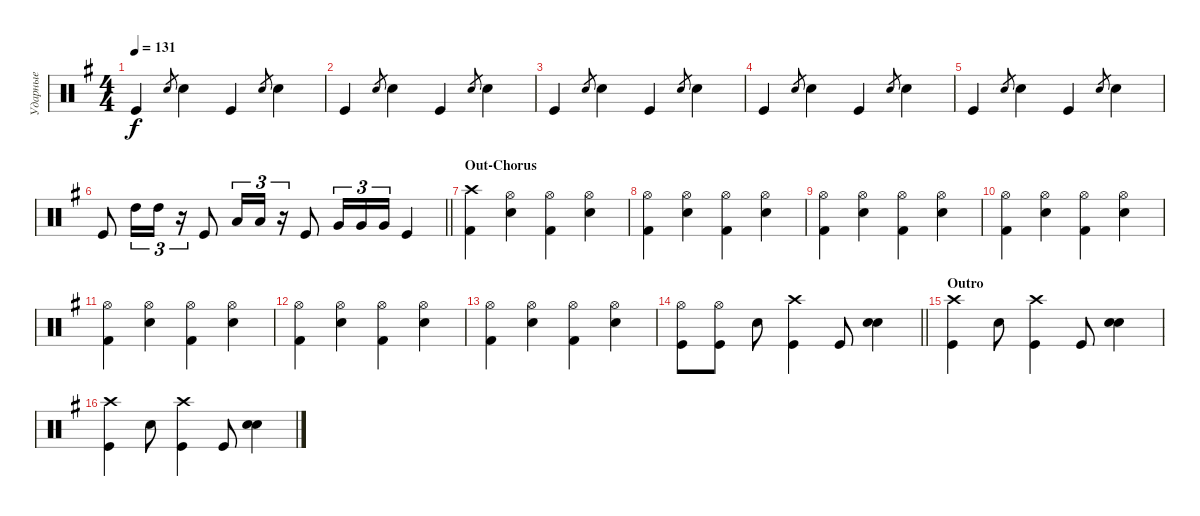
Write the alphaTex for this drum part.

\track ("Ударные" "Ударные") {instrument percussion}
\staff {score}
\articulation defaults
\ts (4 4)
\tempo 131
\clef neutral
\ks eminor "Kick (hit)".4{dy f} "Snare (hit) 2".8{gr} "Snare (hit) 2".4 "Kick (hit)".4 "Snare (hit) 2".8{gr} "Snare (hit) 2".4
|
"Kick (hit)".4 "Snare (hit) 2".8{gr} "Snare (hit) 2".4 "Kick (hit)".4 "Snare (hit) 2".8{gr} "Snare (hit) 2".4 |
"Kick (hit)".4 "Snare (hit) 2".8{gr} "Snare (hit) 2".4 "Kick (hit)".4 "Snare (hit) 2".8{gr} "Snare (hit) 2".4 |
"Kick (hit)".4 "Snare (hit) 2".8{gr} "Snare (hit) 2".4 "Kick (hit)".4 "Snare (hit) 2".8{gr} "Snare (hit) 2".4 |
"Kick (hit)".4 "Snare (hit) 2".8{gr} "Snare (hit) 2".4 "Kick (hit)".4 "Snare (hit) 2".8{gr} "Snare (hit) 2".4 |
\barLineRight lightlight "Kick (hit)".8 "High Tom (hit)".16{tu (3 2)} "High Tom (hit)".16{tu (3 2)}
r.16{tu (3 2)} "Kick (hit)".8 "Low Tom (hit)".16{tu (3 2)} "Low Tom (hit)".16{tu (3 2)} r.16{tu (3 2)} "Kick (hit)".8 "Very Low Tom (hit)".16{tu (3 2)} "Very Low Tom (hit)".16{tu (3 2)} "Very Low Tom (hit)".16{tu (3 2)} "Kick (hit)".4 |
\section ("" "Out-Chorus")
("Crash high (hit)" "Kick (hit) 2").4 ("Hi-Hat (open)" "Snare (hit) 2").4 ("Hi-Hat (open)" "Kick (hit) 2").4 ("Hi-Hat (open)" "Snare (hit) 2").4 |
("Hi-Hat (open)" "Kick (hit) 2").4 ("Hi-Hat (open)" "Snare (hit) 2").4 ("Hi-Hat (open)" "Kick (hit) 2").4 ("Hi-Hat (open)" "Snare (hit) 2").4 |
("Hi-Hat (open)" "Kick (hit) 2").4 ("Hi-Hat (open)" "Snare (hit) 2").4 ("Hi-Hat (open)" "Kick (hit) 2").4 ("Hi-Hat (open)" "Snare (hit) 2").4 |
("Hi-Hat (open)" "Kick (hit) 2").4 ("Hi-Hat (open)" "Snare (hit) 2").4 ("Hi-Hat (open)" "Kick (hit) 2").4 ("Hi-Hat (open)" "Snare (hit) 2").4 |
("Hi-Hat (open)" "Kick (hit) 2").4 ("Hi-Hat (open)" "Snare (hit) 2").4 ("Hi-Hat (open)" "Kick (hit) 2").4 ("Hi-Hat (open)" "Snare (hit) 2").4 |
("Hi-Hat (open)" "Kick (hit) 2").4 ("Hi-Hat (open)" "Snare (hit) 2").4 ("Hi-Hat (open)" "Kick (hit) 2").4 ("Hi-Hat (open)" "Snare (hit) 2").4 |
("Hi-Hat (open)" "Kick (hit) 2").4 ("Hi-Hat (open)" "Snare (hit) 2").4 ("Hi-Hat (open)" "Kick (hit) 2").4 ("Hi-Hat (open)" "Snare (hit) 2").4 |
\barLineRight lightlight
("Kick (hit)" "Hi-Hat (open)").8 ("Kick (hit)" "Hi-Hat (open)").8 "Snare (hit) 2".8 ("Crash high (hit)" "Kick (hit)").4 "Kick (hit)".8 ("Snare (hit) 2" "Snare (hit) 2").4{bd 240} |
\section ("" "Outro")
("Kick (hit)" "Crash high (hit)").4 "Snare (hit) 2".8 ("Kick (hit)" "Crash high (hit)").4 "Kick (hit)".8 ("Snare (hit) 2" "Snare (hit) 2").4{bd 480} |
("Kick (hit)" "Crash high (hit)").4 "Snare (hit) 2".8 ("Kick (hit)" "Crash high (hit)").4 "Kick (hit)".8 ("Snare (hit) 2" "Snare (hit) 2").4{bd 480}
